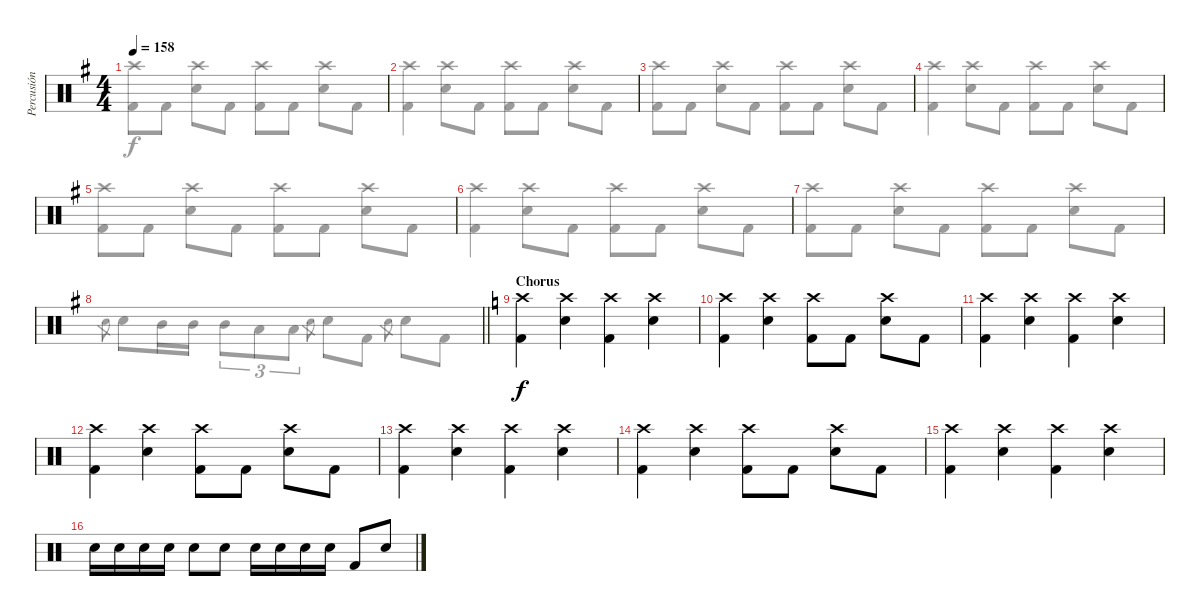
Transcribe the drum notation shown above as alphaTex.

\track ("Percusión" "Percusión") {instrument percussion}
\staff {score}
\articulation defaults
\voice
\ts (4 4)
\tempo 158
\clef neutral
\ks g
|
|
|
|
|
|
|
\barLineRight lightlight
|
\section ("" "Chorus")
\ks c
("Crash high (hit)" "Kick (hit) 2").4 ("Crash high (hit)" "Snare (hit) 2").4 ("Crash high (hit)" "Kick (hit) 2").4 ("Crash high (hit)" "Snare (hit) 2").4 |
("Crash high (hit)" "Kick (hit) 2").4 ("Crash high (hit)" "Snare (hit) 2").4 ("Crash high (hit)" "Kick (hit) 2").8 "Kick (hit) 2".8 ("Crash high (hit)" "Snare (hit) 2").8 "Kick (hit) 2".8 |
("Crash high (hit)" "Kick (hit) 2").4 ("Crash high (hit)" "Snare (hit) 2").4 ("Crash high (hit)" "Kick (hit) 2").4 ("Crash high (hit)" "Snare (hit) 2").4 |
("Crash high (hit)" "Kick (hit) 2").4 ("Crash high (hit)" "Snare (hit) 2").4 ("Crash high (hit)" "Kick (hit) 2").8 "Kick (hit) 2".8 ("Crash high (hit)" "Snare (hit) 2").8 "Kick (hit) 2".8 |
("Crash high (hit)" "Kick (hit) 2").4 ("Crash high (hit)" "Snare (hit) 2").4 ("Crash high (hit)" "Kick (hit) 2").4 ("Crash high (hit)" "Snare (hit) 2").4 |
("Crash high (hit)" "Kick (hit) 2").4 ("Crash high (hit)" "Snare (hit) 2").4 ("Crash high (hit)" "Kick (hit) 2").8 "Kick (hit) 2".8 ("Crash high (hit)" "Snare (hit) 2").8 "Kick (hit) 2".8 |
("Crash high (hit)" "Kick (hit) 2").4 ("Crash high (hit)" "Snare (hit) 2").4 ("Crash high (hit)" "Kick (hit) 2").4 ("Crash high (hit)" "Snare (hit) 2").4 |
"Snare (hit) 2".16 "Snare (hit) 2".16 "Snare (hit) 2".16 "Snare (hit) 2".16 "Snare (hit) 2".8 "Snare (hit) 2".8 "Snare (hit) 2".16 "Snare (hit) 2".16 "Snare (hit) 2".16 "Snare (hit) 2".16 "Kick (hit) 2".8 "Snare (hit) 2".8
\voice
\clef neutral
\ottava regular
\simile none
\ks g
("Crash high (hit)" "Kick (hit) 2").8{dy f} "Kick (hit) 2".8 ("Crash high (hit)" "Snare (hit) 2").8 "Kick (hit) 2".8 ("Crash high (hit)" "Kick (hit) 2").8 "Kick (hit) 2".8 ("Crash high (hit)" "Snare (hit) 2").8 "Kick (hit) 2".8 |
("Crash high (hit)" "Kick (hit) 2").4 ("Crash high (hit)" "Snare (hit) 2").8 "Kick (hit) 2".8 ("Crash high (hit)" "Kick (hit) 2").8 "Kick (hit) 2".8 ("Crash high (hit)" "Snare (hit) 2").8 "Kick (hit) 2".8 |
("Crash high (hit)" "Kick (hit) 2").8 "Kick (hit) 2".8 ("Crash high (hit)" "Snare (hit) 2").8 "Kick (hit) 2".8 ("Crash high (hit)" "Kick (hit) 2").8 "Kick (hit) 2".8 ("Crash high (hit)" "Snare (hit) 2").8 "Kick (hit) 2".8 |
("Crash high (hit)" "Kick (hit) 2").4 ("Crash high (hit)" "Snare (hit) 2").8 "Kick (hit) 2".8 ("Crash high (hit)" "Kick (hit) 2").8 "Kick (hit) 2".8 ("Crash high (hit)" "Snare (hit) 2").8 "Kick (hit) 2".8 |
("Crash high (hit)" "Kick (hit) 2").8 "Kick (hit) 2".8 ("Crash high (hit)" "Snare (hit) 2").8 "Kick (hit) 2".8 ("Crash high (hit)" "Kick (hit) 2").8 "Kick (hit) 2".8 ("Crash high (hit)" "Snare (hit) 2").8 "Kick (hit) 2".8 |
("Crash high (hit)" "Kick (hit) 2").4 ("Crash high (hit)" "Snare (hit) 2").8 "Kick (hit) 2".8 ("Crash high (hit)" "Kick (hit) 2").8 "Kick (hit) 2".8 ("Crash high (hit)" "Snare (hit) 2").8 "Kick (hit) 2".8 |
("Crash high (hit)" "Kick (hit) 2").8 "Kick (hit) 2".8 ("Crash high (hit)" "Snare (hit) 2").8 "Kick (hit) 2".8 ("Crash high (hit)" "Kick (hit) 2").8 "Kick (hit) 2".8 ("Crash high (hit)" "Snare (hit) 2").8 "Kick (hit) 2".8 |
\barLineRight lightlight "Snare (hit) 2".8{gr} "Snare (hit) 2".8 "Mid Tom (hit)".16 "Mid Tom (hit)".16 "Mid Tom (hit)".8{tu (3 2)} "Low Tom (hit)".8{tu (3 2)} "Low Tom (hit)".8{tu (3 2)} "Snare (hit) 2".8{gr} "Snare (hit) 2".8 "Kick (hit) 2".8 "Snare (hit) 2".8{gr} "Snare (hit) 2".8 "Kick (hit) 2".8
|
\ks c
|
|
|
|
|
|
|
